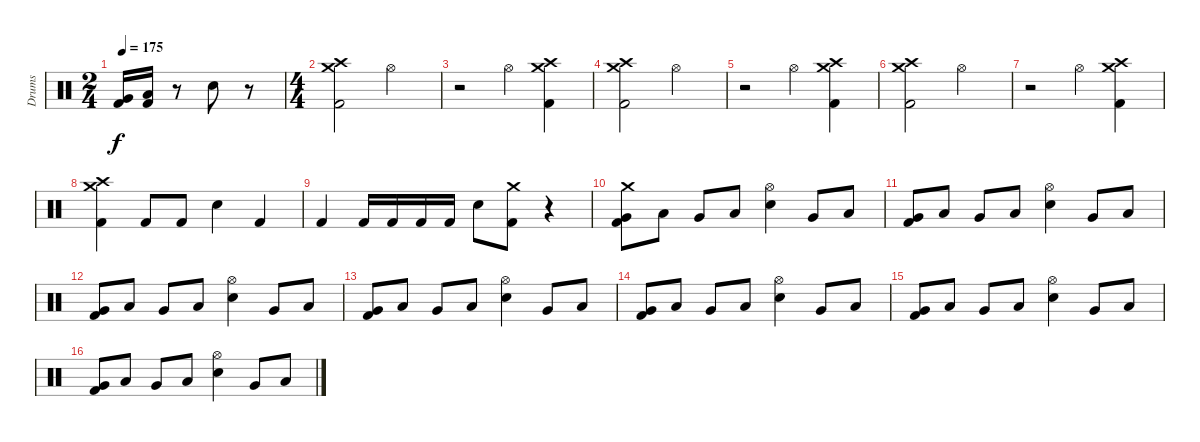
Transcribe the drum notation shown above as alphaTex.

\track ("Drums" "Drums") {instrument percussion}
\staff {score}
\articulation defaults
\ts (2 4)
\tempo 175
\clef neutral
\ks c
("Very Low Tom (hit)" "Kick (hit) 2").16{dy f} ("Low Floor Tom (hit)" "Kick (hit) 2").16 r.8 "Snare (hit) 2".8 r.8 |
\ts (4 4)
("Crash high (hit)" "Crash medium (hit)" "Kick (hit) 2").2 "Hi-Hat (open)".2 |
r.2 "Hi-Hat (open)".4 ("Crash medium (hit)" "Crash high (hit)" "Kick (hit) 2").4 |
("Crash high (hit)" "Crash medium (hit)" "Kick (hit) 2").2 "Hi-Hat (open)".2 |
r.2 "Hi-Hat (open)".4 ("Crash medium (hit)" "Crash high (hit)" "Kick (hit) 2").4 |
("Crash high (hit)" "Crash medium (hit)" "Kick (hit) 2").2 "Hi-Hat (open)".2 |
r.2 "Hi-Hat (open)".4 ("Crash medium (hit)" "Crash high (hit)" "Kick (hit) 2").4 |
("Crash high (hit)" "Crash medium (hit)" "Kick (hit) 2").4 "Kick (hit) 2".8 "Kick (hit) 2".8 "Snare (hit) 2".4 "Kick (hit) 2".4 |
"Kick (hit) 2".4 "Kick (hit) 2".16 "Kick (hit) 2".16 "Kick (hit) 2".16 "Kick (hit) 2".16 "Snare (hit) 2".8 ("Crash medium (hit)" "Kick (hit) 2").8 r.4 |
("Crash medium (hit)" "Very Low Tom (hit)" "Kick (hit) 2").8 "Low Tom (hit)".8 "Very Low Tom (hit)".8 "Low Tom (hit)".8 ("Hi-Hat (open)" "Snare (hit) 2").4 "Very Low Tom (hit)".8 "Low Tom (hit)".8 |
("Very Low Tom (hit)" "Kick (hit) 2").8 "Low Tom (hit)".8 "Very Low Tom (hit)".8 "Low Tom (hit)".8 ("Hi-Hat (open)" "Snare (hit) 2").4 "Very Low Tom (hit)".8 "Low Tom (hit)".8 |
("Very Low Tom (hit)" "Kick (hit) 2").8 "Low Tom (hit)".8 "Very Low Tom (hit)".8 "Low Tom (hit)".8 ("Hi-Hat (open)" "Snare (hit) 2").4 "Very Low Tom (hit)".8 "Low Tom (hit)".8 |
("Very Low Tom (hit)" "Kick (hit) 2").8 "Low Tom (hit)".8 "Very Low Tom (hit)".8 "Low Tom (hit)".8 ("Hi-Hat (open)" "Snare (hit) 2").4 "Very Low Tom (hit)".8 "Low Tom (hit)".8 |
("Very Low Tom (hit)" "Kick (hit) 2").8 "Low Tom (hit)".8 "Very Low Tom (hit)".8 "Low Tom (hit)".8 ("Hi-Hat (open)" "Snare (hit) 2").4 "Very Low Tom (hit)".8 "Low Tom (hit)".8 |
("Very Low Tom (hit)" "Kick (hit) 2").8 "Low Tom (hit)".8 "Very Low Tom (hit)".8 "Low Tom (hit)".8 ("Hi-Hat (open)" "Snare (hit) 2").4 "Very Low Tom (hit)".8 "Low Tom (hit)".8 |
("Very Low Tom (hit)" "Kick (hit) 2").8 "Low Tom (hit)".8 "Very Low Tom (hit)".8 "Low Tom (hit)".8 ("Hi-Hat (open)" "Snare (hit) 2").4 "Very Low Tom (hit)".8 "Low Tom (hit)".8
